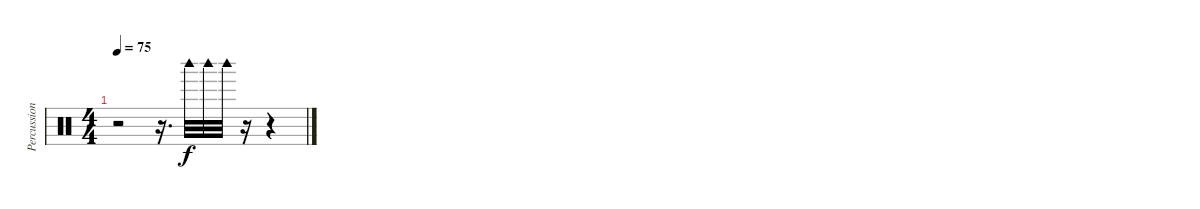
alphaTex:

\track ("Percussion" "Percussion") {instrument percussion}
\staff {score}
\articulation defaults
\ts (4 4)
\tempo 75
\clef neutral
\ks c
r.2{dy f} r.16{d} "Woodblock high (hit)".32 "Woodblock high (hit)".32 "Woodblock high (hit)".32 r.16 r.4
